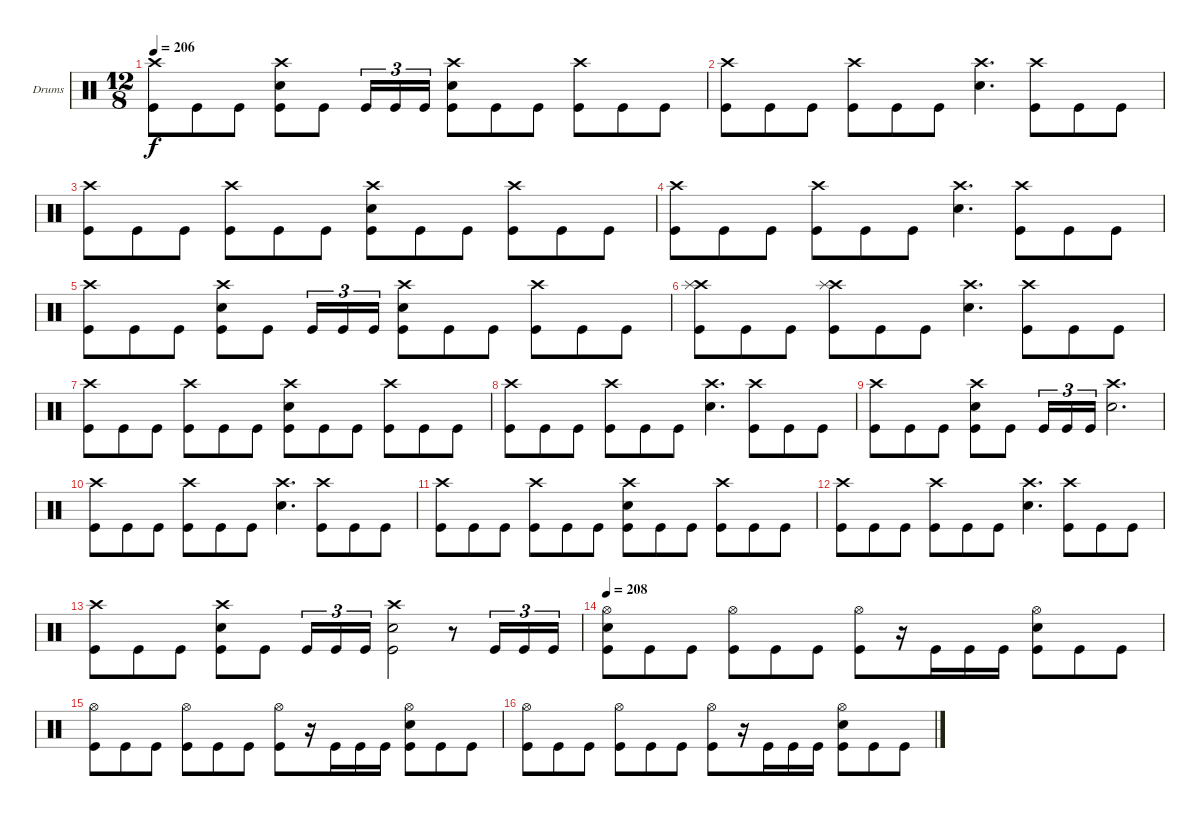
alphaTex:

\bracketExtendMode groupsimilarinstruments
\firstSystemTrackNameOrientation horizontal
\otherSystemsTrackNameOrientation horizontal
\track ("Drumkit" "Drums") {instrument percussion}
\staff {score}
\articulation defaults
\ts (12 8)
\tempo 206
\clef neutral
\ks c
("Crash high (hit)" "Kick (hit)").8{dy f} "Kick (hit)".8 "Kick (hit)".8 ("Crash high (hit)" "Kick (hit)" "Snare (hit) 2").8 "Kick (hit)".8 "Kick (hit)".16{tu (3 2)} "Kick (hit)".16{tu (3 2)} "Kick (hit)".16{tu (3 2)} ("Crash high (hit)" "Kick (hit)" "Snare (hit) 2").8 "Kick (hit)".8 "Kick (hit)".8 ("Crash high (hit)" "Kick (hit)").8 "Kick (hit)".8 "Kick (hit)".8 |
("Crash high (hit)" "Kick (hit)").8 "Kick (hit)".8 "Kick (hit)".8 ("Crash high (hit)" "Kick (hit)").8 "Kick (hit)".8 "Kick (hit)".8 ("Crash high (hit)" "Snare (hit) 2").4{d} ("Crash high (hit)" "Kick (hit)").8 "Kick (hit)".8 "Kick (hit)".8 |
("Crash high (hit)" "Kick (hit)").8 "Kick (hit)".8 "Kick (hit)".8 ("Crash high (hit)" "Kick (hit)").8 "Kick (hit)".8 "Kick (hit)".8 ("Crash high (hit)" "Kick (hit)" "Snare (hit) 2").8 "Kick (hit)".8 "Kick (hit)".8 ("Crash high (hit)" "Kick (hit)").8 "Kick (hit)".8 "Kick (hit)".8 |
("Crash high (hit)" "Kick (hit)").8 "Kick (hit)".8 "Kick (hit)".8 ("Crash high (hit)" "Kick (hit)").8 "Kick (hit)".8 "Kick (hit)".8 ("Crash high (hit)" "Snare (hit) 2").4{d} ("Crash high (hit)" "Kick (hit)").8 "Kick (hit)".8 "Kick (hit)".8 |
("Crash high (hit)" "Kick (hit)").8 "Kick (hit)".8 "Kick (hit)".8 ("Crash high (hit)" "Kick (hit)" "Snare (hit) 2").8 "Kick (hit)".8 "Kick (hit)".16{tu (3 2)} "Kick (hit)".16{tu (3 2)} "Kick (hit)".16{tu (3 2)} ("Crash high (hit)" "Kick (hit)" "Snare (hit) 2").8 "Kick (hit)".8 "Kick (hit)".8 ("Crash high (hit)" "Kick (hit)").8 "Kick (hit)".8 "Kick (hit)".8 |
("Crash high (hit)" "Kick (hit)" "Splash (hit)").8 "Kick (hit)".8 "Kick (hit)".8 ("Crash high (hit)" "Kick (hit)" "Splash (hit)").8 "Kick (hit)".8 "Kick (hit)".8 ("Crash high (hit)" "Snare (hit) 2").4{d} ("Crash high (hit)" "Kick (hit)").8 "Kick (hit)".8 "Kick (hit)".8 |
("Crash high (hit)" "Kick (hit)").8 "Kick (hit)".8 "Kick (hit)".8 ("Crash high (hit)" "Kick (hit)").8 "Kick (hit)".8 "Kick (hit)".8 ("Crash high (hit)" "Kick (hit)" "Snare (hit) 2").8 "Kick (hit)".8 "Kick (hit)".8 ("Crash high (hit)" "Kick (hit)").8 "Kick (hit)".8 "Kick (hit)".8 |
("Crash high (hit)" "Kick (hit)").8 "Kick (hit)".8 "Kick (hit)".8 ("Crash high (hit)" "Kick (hit)").8 "Kick (hit)".8 "Kick (hit)".8 ("Crash high (hit)" "Snare (hit) 2").4{d} ("Crash high (hit)" "Kick (hit)").8 "Kick (hit)".8 "Kick (hit)".8 |
("Crash high (hit)" "Kick (hit)").8 "Kick (hit)".8 "Kick (hit)".8 ("Crash high (hit)" "Kick (hit)" "Snare (hit) 2").8 "Kick (hit)".8 "Kick (hit)".16{tu (3 2)} "Kick (hit)".16{tu (3 2)} "Kick (hit)".16{tu (3 2)} ("Crash high (hit)" "Snare (hit) 2").2{d} |
("Crash high (hit)" "Kick (hit)").8 "Kick (hit)".8 "Kick (hit)".8 ("Crash high (hit)" "Kick (hit)").8 "Kick (hit)".8 "Kick (hit)".8 ("Crash high (hit)" "Snare (hit) 2").4{d} ("Crash high (hit)" "Kick (hit)").8 "Kick (hit)".8 "Kick (hit)".8 |
("Crash high (hit)" "Kick (hit)").8 "Kick (hit)".8 "Kick (hit)".8 ("Crash high (hit)" "Kick (hit)").8 "Kick (hit)".8 "Kick (hit)".8 ("Crash high (hit)" "Kick (hit)" "Snare (hit) 2").8 "Kick (hit)".8 "Kick (hit)".8 ("Crash high (hit)" "Kick (hit)").8 "Kick (hit)".8 "Kick (hit)".8 |
("Crash high (hit)" "Kick (hit)").8 "Kick (hit)".8 "Kick (hit)".8 ("Crash high (hit)" "Kick (hit)").8 "Kick (hit)".8 "Kick (hit)".8 ("Crash high (hit)" "Snare (hit) 2").4{d} ("Crash high (hit)" "Kick (hit)").8 "Kick (hit)".8 "Kick (hit)".8 |
("Crash high (hit)" "Kick (hit)").8 "Kick (hit)".8 "Kick (hit)".8 ("Crash high (hit)" "Kick (hit)" "Snare (hit) 2").8 "Kick (hit)".8 "Kick (hit)".16{tu (3 2)} "Kick (hit)".16{tu (3 2)} "Kick (hit)".16{tu (3 2)} ("Crash high (hit)" "Kick (hit)" "Snare (hit) 2").2 r.8 "Kick (hit)".16{tu (3 2)} "Kick (hit)".16{tu (3 2)} "Kick (hit)".16{tu (3 2)} |
\tempo 208
("Kick (hit)" "Snare (hit) 2" "Hi-Hat (open)").8 "Kick (hit)".8 "Kick (hit)".8 ("Kick (hit)" "Hi-Hat (open)").8 "Kick (hit)".8 "Kick (hit)".8 ("Kick (hit)" "Hi-Hat (open)").8 r.16 "Kick (hit)".16 "Kick (hit)".16 "Kick (hit)".16 ("Kick (hit)" "Hi-Hat (open)" "Snare (hit) 2").8 "Kick (hit)".8 "Kick (hit)".8 |
("Kick (hit)" "Hi-Hat (open)").8 "Kick (hit)".8 "Kick (hit)".8 ("Kick (hit)" "Hi-Hat (open)").8 "Kick (hit)".8 "Kick (hit)".8 ("Kick (hit)" "Hi-Hat (open)").8 r.16 "Kick (hit)".16 "Kick (hit)".16 "Kick (hit)".16 ("Kick (hit)" "Hi-Hat (open)" "Snare (hit) 2").8 "Kick (hit)".8 "Kick (hit)".8 |
("Kick (hit)" "Hi-Hat (open)").8 "Kick (hit)".8 "Kick (hit)".8 ("Kick (hit)" "Hi-Hat (open)").8 "Kick (hit)".8 "Kick (hit)".8 ("Kick (hit)" "Hi-Hat (open)").8 r.16 "Kick (hit)".16 "Kick (hit)".16 "Kick (hit)".16 ("Kick (hit)" "Hi-Hat (open)" "Snare (hit) 2").8 "Kick (hit)".8 "Kick (hit)".8
